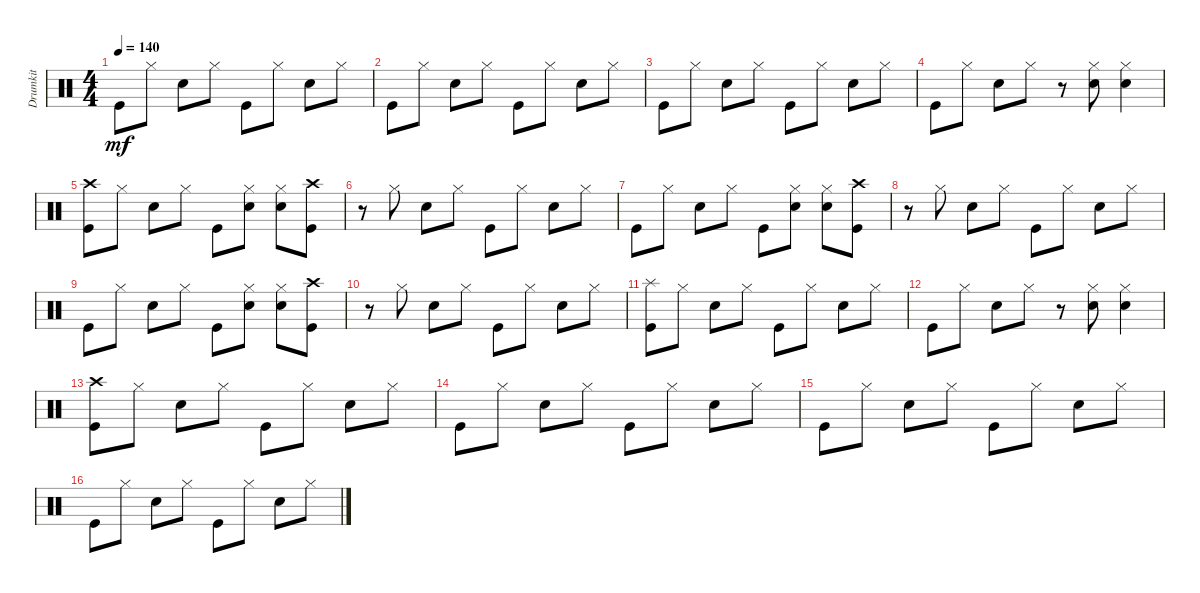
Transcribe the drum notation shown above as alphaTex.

\track ("Drumkit" "Drumkit") {instrument percussion}
\staff {score}
\articulation defaults
\ts (4 4)
\tempo 140
\clef neutral
\ks c "Kick (hit)".8{dy mf} "Hi-Hat (closed)".8 "Snare (hit) 2".8 "Hi-Hat (closed)".8 "Kick (hit)".8 "Hi-Hat (closed)".8 "Snare (hit) 2".8 "Hi-Hat (closed)".8
|
"Kick (hit)".8 "Hi-Hat (closed)".8 "Snare (hit) 2".8 "Hi-Hat (closed)".8 "Kick (hit)".8 "Hi-Hat (closed)".8 "Snare (hit) 2".8 "Hi-Hat (closed)".8 |
"Kick (hit)".8 "Hi-Hat (closed)".8 "Snare (hit) 2".8 "Hi-Hat (closed)".8 "Kick (hit)".8 "Hi-Hat (closed)".8 "Snare (hit) 2".8 "Hi-Hat (closed)".8 |
"Kick (hit)".8 "Hi-Hat (closed)".8 "Snare (hit) 2".8 "Hi-Hat (closed)".8 r.8 ("Hi-Hat (closed)" "Snare (hit) 2").8 ("Snare (hit) 2" "Hi-Hat (closed)").4 |
("Kick (hit)" "Crash high (hit)").8 "Hi-Hat (closed)".8 "Snare (hit) 2".8 "Hi-Hat (closed)".8 "Kick (hit)".8 ("Hi-Hat (closed)" "Snare (hit) 2").8 ("Snare (hit) 2" "Hi-Hat (closed)").8 ("Crash high (hit)" "Kick (hit)").8 |
r.8 "Hi-Hat (closed)".8 "Snare (hit) 2".8 "Hi-Hat (closed)".8 "Kick (hit)".8 "Hi-Hat (closed)".8 "Snare (hit) 2".8 "Hi-Hat (closed)".8 |
"Kick (hit)".8 "Hi-Hat (closed)".8 "Snare (hit) 2".8 "Hi-Hat (closed)".8 "Kick (hit)".8 ("Hi-Hat (closed)" "Snare (hit) 2").8 ("Snare (hit) 2" "Hi-Hat (closed)").8 ("Crash high (hit)" "Kick (hit)").8 |
r.8 "Hi-Hat (closed)".8 "Snare (hit) 2".8 "Hi-Hat (closed)".8 "Kick (hit)".8 "Hi-Hat (closed)".8 "Snare (hit) 2".8 "Hi-Hat (closed)".8 |
"Kick (hit)".8 "Hi-Hat (closed)".8 "Snare (hit) 2".8 "Hi-Hat (closed)".8 "Kick (hit)".8 ("Hi-Hat (closed)" "Snare (hit) 2").8 ("Snare (hit) 2" "Hi-Hat (closed)").8 ("Crash high (hit)" "Kick (hit)").8 |
r.8 "Hi-Hat (closed)".8 "Snare (hit) 2".8 "Hi-Hat (closed)".8 "Kick (hit)".8 "Hi-Hat (closed)".8 "Snare (hit) 2".8 "Hi-Hat (closed)".8 |
("Kick (hit)" "Splash (hit)").8 "Hi-Hat (closed)".8 "Snare (hit) 2".8 "Hi-Hat (closed)".8 "Kick (hit)".8 "Hi-Hat (closed)".8 "Snare (hit) 2".8 "Hi-Hat (closed)".8 |
"Kick (hit)".8 "Hi-Hat (closed)".8 "Snare (hit) 2".8 "Hi-Hat (closed)".8 r.8 ("Hi-Hat (closed)" "Snare (hit) 2").8 ("Snare (hit) 2" "Hi-Hat (closed)").4 |
("Kick (hit)" "Crash high (hit)").8 "Hi-Hat (closed)".8 "Snare (hit) 2".8 "Hi-Hat (closed)".8 "Kick (hit)".8 "Hi-Hat (closed)".8 "Snare (hit) 2".8 "Hi-Hat (closed)".8 |
"Kick (hit)".8 "Hi-Hat (closed)".8 "Snare (hit) 2".8 "Hi-Hat (closed)".8 "Kick (hit)".8 "Hi-Hat (closed)".8 "Snare (hit) 2".8 "Hi-Hat (closed)".8 |
"Kick (hit)".8 "Hi-Hat (closed)".8 "Snare (hit) 2".8 "Hi-Hat (closed)".8 "Kick (hit)".8 "Hi-Hat (closed)".8 "Snare (hit) 2".8 "Hi-Hat (closed)".8 |
"Kick (hit)".8 "Hi-Hat (closed)".8 "Snare (hit) 2".8 "Hi-Hat (closed)".8 "Kick (hit)".8 "Hi-Hat (closed)".8 "Snare (hit) 2".8 "Hi-Hat (closed)".8
